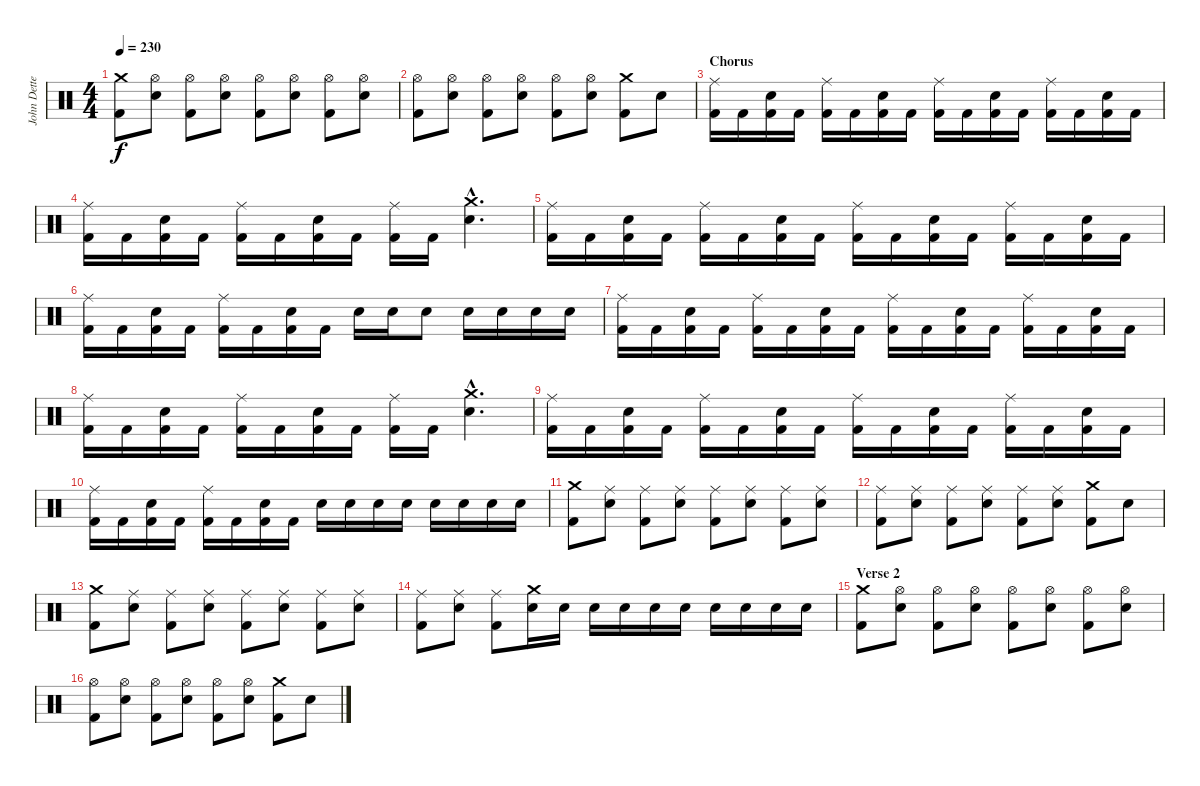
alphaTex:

\track ("John Dette" "John Dette") {instrument percussion}
\staff {score}
\articulation defaults
\ts (4 4)
\tempo 230
\clef neutral
\ks c
("Crash medium (hit)" "Kick (hit) 2").8{dy f} ("Hi-Hat (open)" "Snare (hit) 2").8 ("Hi-Hat (open)" "Kick (hit) 2").8 ("Hi-Hat (open)" "Snare (hit) 2").8 ("Hi-Hat (open)" "Kick (hit) 2").8 ("Hi-Hat (open)" "Snare (hit) 2").8 ("Hi-Hat (open)" "Kick (hit) 2").8 ("Hi-Hat (open)" "Snare (hit) 2").8 |
("Hi-Hat (open)" "Kick (hit) 2").8 ("Hi-Hat (open)" "Snare (hit) 2").8 ("Hi-Hat (open)" "Kick (hit) 2").8 ("Hi-Hat (open)" "Snare (hit) 2").8 ("Hi-Hat (open)" "Kick (hit) 2").8 ("Hi-Hat (open)" "Snare (hit) 2").8 ("Crash medium (hit)" "Kick (hit) 2").8 "Snare (hit) 2".8 |
\section ("" "Chorus")
("Ride (middle)" "Kick (hit) 2").16 "Kick (hit) 2".16 ("Snare (hit) 2" "Kick (hit) 2").16 "Kick (hit) 2".16 ("Ride (middle)" "Kick (hit) 2").16 "Kick (hit) 2".16 ("Snare (hit) 2" "Kick (hit) 2").16 "Kick (hit) 2".16 ("Ride (middle)" "Kick (hit) 2").16 "Kick (hit) 2".16 ("Snare (hit) 2" "Kick (hit) 2").16 "Kick (hit) 2".16 ("Ride (middle)" "Kick (hit) 2").16 "Kick (hit) 2".16 ("Snare (hit) 2" "Kick (hit) 2").16 "Kick (hit) 2".16 |
("Ride (middle)" "Kick (hit) 2").16 "Kick (hit) 2".16 ("Snare (hit) 2" "Kick (hit) 2").16 "Kick (hit) 2".16 ("Ride (middle)" "Kick (hit) 2").16 "Kick (hit) 2".16 ("Snare (hit) 2" "Kick (hit) 2").16 "Kick (hit) 2".16 ("Ride (middle)" "Kick (hit) 2").16 "Kick (hit) 2".16 ("Crash medium (hit)"{hac} "Snare (hit) 2"{hac}).4{d} |
("Ride (middle)" "Kick (hit) 2").16 "Kick (hit) 2".16 ("Snare (hit) 2" "Kick (hit) 2").16 "Kick (hit) 2".16 ("Ride (middle)" "Kick (hit) 2").16 "Kick (hit) 2".16 ("Snare (hit) 2" "Kick (hit) 2").16 "Kick (hit) 2".16 ("Ride (middle)" "Kick (hit) 2").16 "Kick (hit) 2".16 ("Snare (hit) 2" "Kick (hit) 2").16 "Kick (hit) 2".16 ("Ride (middle)" "Kick (hit) 2").16 "Kick (hit) 2".16 ("Snare (hit) 2" "Kick (hit) 2").16 "Kick (hit) 2".16 |
("Ride (middle)" "Kick (hit) 2").16 "Kick (hit) 2".16 ("Snare (hit) 2" "Kick (hit) 2").16 "Kick (hit) 2".16 ("Ride (middle)" "Kick (hit) 2").16 "Kick (hit) 2".16 ("Snare (hit) 2" "Kick (hit) 2").16 "Kick (hit) 2".16 "Snare (hit) 2".16 "Snare (hit) 2".16 "Snare (hit) 2".8 "Snare (hit) 2".16 "Snare (hit) 2".16 "Snare (hit) 2".16 "Snare (hit) 2".16 |
("Ride (middle)" "Kick (hit) 2").16 "Kick (hit) 2".16 ("Snare (hit) 2" "Kick (hit) 2").16 "Kick (hit) 2".16 ("Ride (middle)" "Kick (hit) 2").16 "Kick (hit) 2".16 ("Snare (hit) 2" "Kick (hit) 2").16 "Kick (hit) 2".16 ("Ride (middle)" "Kick (hit) 2").16 "Kick (hit) 2".16 ("Snare (hit) 2" "Kick (hit) 2").16 "Kick (hit) 2".16 ("Ride (middle)" "Kick (hit) 2").16 "Kick (hit) 2".16 ("Snare (hit) 2" "Kick (hit) 2").16 "Kick (hit) 2".16 |
("Ride (middle)" "Kick (hit) 2").16 "Kick (hit) 2".16 ("Snare (hit) 2" "Kick (hit) 2").16 "Kick (hit) 2".16 ("Ride (middle)" "Kick (hit) 2").16 "Kick (hit) 2".16 ("Snare (hit) 2" "Kick (hit) 2").16 "Kick (hit) 2".16 ("Ride (middle)" "Kick (hit) 2").16 "Kick (hit) 2".16 ("Crash medium (hit)"{hac} "Snare (hit) 2"{hac}).4{d} |
("Ride (middle)" "Kick (hit) 2").16 "Kick (hit) 2".16 ("Snare (hit) 2" "Kick (hit) 2").16 "Kick (hit) 2".16 ("Ride (middle)" "Kick (hit) 2").16 "Kick (hit) 2".16 ("Snare (hit) 2" "Kick (hit) 2").16 "Kick (hit) 2".16 ("Ride (middle)" "Kick (hit) 2").16 "Kick (hit) 2".16 ("Snare (hit) 2" "Kick (hit) 2").16 "Kick (hit) 2".16 ("Ride (middle)" "Kick (hit) 2").16 "Kick (hit) 2".16 ("Snare (hit) 2" "Kick (hit) 2").16 "Kick (hit) 2".16 |
("Ride (middle)" "Kick (hit) 2").16 "Kick (hit) 2".16 ("Snare (hit) 2" "Kick (hit) 2").16 "Kick (hit) 2".16 ("Ride (middle)" "Kick (hit) 2").16 "Kick (hit) 2".16 ("Snare (hit) 2" "Kick (hit) 2").16 "Kick (hit) 2".16 "Snare (hit) 2".16 "Snare (hit) 2".16 "Snare (hit) 2".16 "Snare (hit) 2".16 "Snare (hit) 2".16 "Snare (hit) 2".16 "Snare (hit) 2".16 "Snare (hit) 2".16 |
("Crash medium (hit)" "Kick (hit) 2").8 ("Ride (middle)" "Snare (hit) 2").8 ("Ride (middle)" "Kick (hit) 2").8 ("Ride (middle)" "Snare (hit) 2").8 ("Ride (middle)" "Kick (hit) 2").8 ("Ride (middle)" "Snare (hit) 2").8 ("Ride (middle)" "Kick (hit) 2").8 ("Ride (middle)" "Snare (hit) 2").8 |
("Ride (middle)" "Kick (hit) 2").8 ("Ride (middle)" "Snare (hit) 2").8 ("Ride (middle)" "Kick (hit) 2").8 ("Ride (middle)" "Snare (hit) 2").8 ("Ride (middle)" "Kick (hit) 2").8 ("Ride (middle)" "Snare (hit) 2").8 ("Crash medium (hit)" "Kick (hit) 2").8 "Snare (hit) 2".8 |
("Crash medium (hit)" "Kick (hit) 2").8 ("Ride (middle)" "Snare (hit) 2").8 ("Ride (middle)" "Kick (hit) 2").8 ("Ride (middle)" "Snare (hit) 2").8 ("Ride (middle)" "Kick (hit) 2").8 ("Ride (middle)" "Snare (hit) 2").8 ("Ride (middle)" "Kick (hit) 2").8 ("Ride (middle)" "Snare (hit) 2").8 |
("Ride (middle)" "Kick (hit) 2").8 ("Ride (middle)" "Snare (hit) 2").8 ("Ride (middle)" "Kick (hit) 2").8 ("Crash medium (hit)" "Snare (hit) 2").16 "Snare (hit) 2".16 "Snare (hit) 2".16 "Snare (hit) 2".16 "Snare (hit) 2".16 "Snare (hit) 2".16 "Snare (hit) 2".16 "Snare (hit) 2".16 "Snare (hit) 2".16 "Snare (hit) 2".16 |
\section ("" "Verse 2")
("Crash medium (hit)" "Kick (hit) 2").8 ("Hi-Hat (open)" "Snare (hit) 2").8 ("Hi-Hat (open)" "Kick (hit) 2").8 ("Hi-Hat (open)" "Snare (hit) 2").8 ("Hi-Hat (open)" "Kick (hit) 2").8 ("Hi-Hat (open)" "Snare (hit) 2").8 ("Hi-Hat (open)" "Kick (hit) 2").8 ("Hi-Hat (open)" "Snare (hit) 2").8 |
("Hi-Hat (open)" "Kick (hit) 2").8 ("Hi-Hat (open)" "Snare (hit) 2").8 ("Hi-Hat (open)" "Kick (hit) 2").8 ("Hi-Hat (open)" "Snare (hit) 2").8 ("Hi-Hat (open)" "Kick (hit) 2").8 ("Hi-Hat (open)" "Snare (hit) 2").8 ("Crash medium (hit)" "Kick (hit) 2").8 "Snare (hit) 2".8
